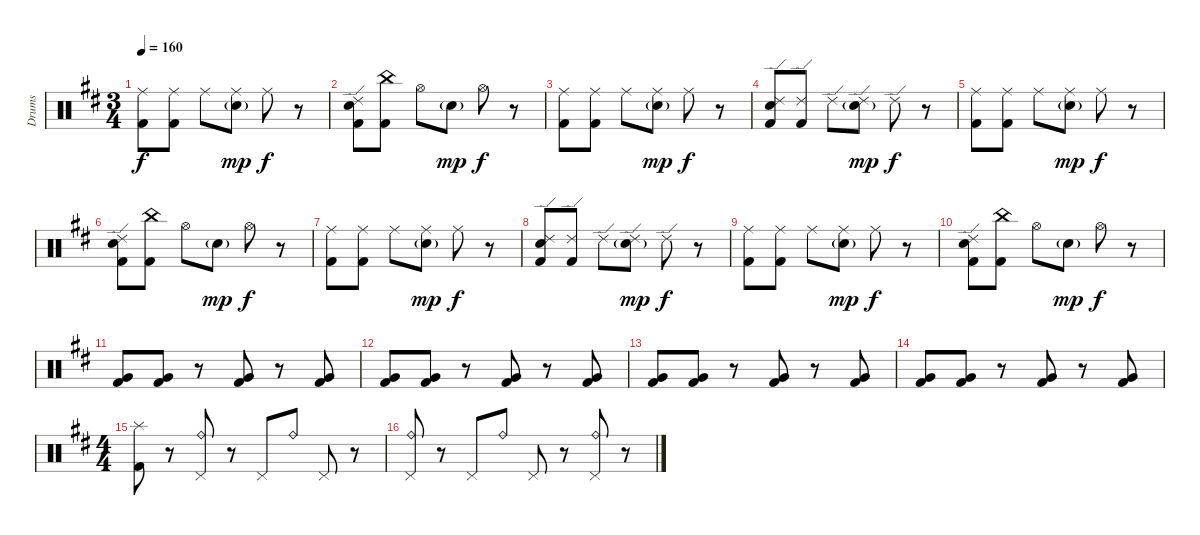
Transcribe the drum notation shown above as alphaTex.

\track ("Drums" "Drums") {instrument percussion}
\staff {score}
\articulation defaults
\ts (3 4)
\tempo 160
\clef neutral
\ks bminor
("Ride (middle)" "Kick (hit) 2").8{dy f} ("Ride (middle)" "Kick (hit) 2").8 "Ride (middle)".8 ("Ride (middle)" "Snare (hit) 2"{g}).8{dy mp} "Ride (middle)".8{dy f} r.8 |
("Ride (edge) 2" "Snare (hit) 2" "Kick (hit) 2").8 ("China (hit)" "Kick (hit) 2").8 "Hi-Hat (open)".8 "Snare (hit) 2"{g}.8{dy mp} "Hi-Hat (open)".8{dy f} r.8 |
("Ride (middle)" "Kick (hit) 2").8 ("Ride (middle)" "Kick (hit) 2").8 "Ride (middle)".8 ("Ride (middle)" "Snare (hit) 2"{g}).8{dy mp} "Ride (middle)".8{dy f} r.8 |
("Ride (edge) 2" "Snare (hit) 2" "Kick (hit) 2").8 ("Ride (edge) 2" "Kick (hit) 2").8 "Ride (edge) 2".8 ("Ride (edge) 2" "Snare (hit) 2"{g}).8{dy mp} "Ride (edge) 2".8{dy f} r.8 |
("Ride (middle)" "Kick (hit) 2").8 ("Ride (middle)" "Kick (hit) 2").8 "Ride (middle)".8 ("Ride (middle)" "Snare (hit) 2"{g}).8{dy mp} "Ride (middle)".8{dy f} r.8 |
("Ride (edge) 2" "Snare (hit) 2" "Kick (hit) 2").8 ("China (hit)" "Kick (hit) 2").8 "Hi-Hat (open)".8 "Snare (hit) 2"{g}.8{dy mp} "Hi-Hat (open)".8{dy f} r.8 |
("Ride (middle)" "Kick (hit) 2").8 ("Ride (middle)" "Kick (hit) 2").8 "Ride (middle)".8 ("Ride (middle)" "Snare (hit) 2"{g}).8{dy mp} "Ride (middle)".8{dy f} r.8 |
("Ride (edge) 2" "Snare (hit) 2" "Kick (hit) 2").8 ("Ride (edge) 2" "Kick (hit) 2").8 "Ride (edge) 2".8 ("Ride (edge) 2" "Snare (hit) 2"{g}).8{dy mp} "Ride (edge) 2".8{dy f} r.8 |
("Ride (middle)" "Kick (hit) 2").8 ("Ride (middle)" "Kick (hit) 2").8 "Ride (middle)".8 ("Ride (middle)" "Snare (hit) 2"{g}).8{dy mp} "Ride (middle)".8{dy f} r.8 |
("Ride (edge) 2" "Snare (hit) 2" "Kick (hit) 2").8 ("China (hit)" "Kick (hit) 2").8 "Hi-Hat (open)".8 "Snare (hit) 2"{g}.8{dy mp} "Hi-Hat (open)".8{dy f} r.8 |
("Very Low Tom (hit)" "Kick (hit) 2").8 ("Very Low Tom (hit)" "Kick (hit) 2").8 r.8 ("Very Low Tom (hit)" "Kick (hit) 2").8 r.8 ("Very Low Tom (hit)" "Kick (hit) 2").8 |
("Very Low Tom (hit)" "Kick (hit) 2").8 ("Very Low Tom (hit)" "Kick (hit) 2").8 r.8 ("Very Low Tom (hit)" "Kick (hit) 2").8 r.8 ("Very Low Tom (hit)" "Kick (hit) 2").8 |
("Very Low Tom (hit)" "Kick (hit) 2").8 ("Very Low Tom (hit)" "Kick (hit) 2").8 r.8 ("Very Low Tom (hit)" "Kick (hit) 2").8 r.8 ("Very Low Tom (hit)" "Kick (hit) 2").8 |
("Very Low Tom (hit)" "Kick (hit) 2").8 ("Very Low Tom (hit)" "Kick (hit) 2").8 r.8 ("Very Low Tom (hit)" "Kick (hit) 2").8 r.8 ("Very Low Tom (hit)" "Kick (hit) 2").8 |
\ts (4 4)
("Splash (hit)" "Kick (hit) 2").8 r.8 ("Ride (bell)" "Pedal Hi-Hat (hit)").8 r.8 "Pedal Hi-Hat (hit)".8 "Ride (bell)".8 "Pedal Hi-Hat (hit)".8 r.8 |
("Ride (bell)" "Pedal Hi-Hat (hit)").8 r.8 "Pedal Hi-Hat (hit)".8 "Ride (bell)".8 "Pedal Hi-Hat (hit)".8 r.8 ("Ride (bell)" "Pedal Hi-Hat (hit)").8 r.8
